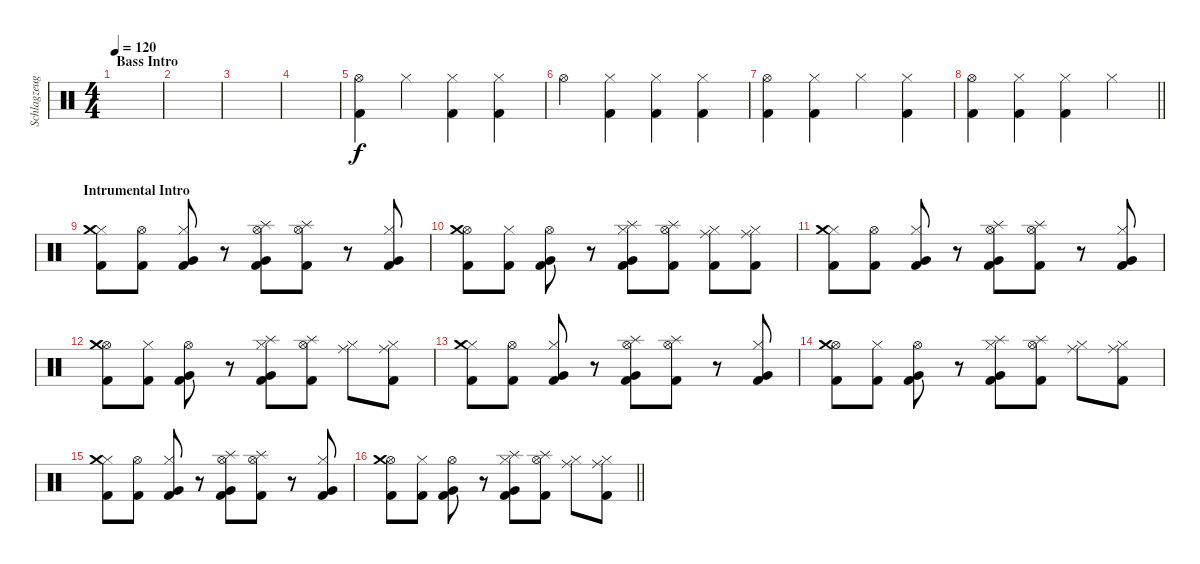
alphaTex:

\track ("Schlagzeug" "Schlagzeug") {instrument percussion}
\staff {score}
\articulation defaults
\ts (4 4)
\section ("" "Bass Intro")
\tempo 120
\clef neutral
\ks c
|
|
|
|
("Hi-Hat (open)" "Kick (hit) 2").4 "Hi-Hat (closed)".4 ("Hi-Hat (closed)" "Kick (hit) 2").4 ("Hi-Hat (closed)" "Kick (hit) 2").4 |
"Hi-Hat (open)".4 ("Hi-Hat (closed)" "Kick (hit) 2").4 ("Hi-Hat (closed)" "Kick (hit) 2").4 ("Hi-Hat (closed)" "Kick (hit) 2").4 |
("Hi-Hat (open)" "Kick (hit) 2").4 ("Hi-Hat (closed)" "Kick (hit) 2").4 "Hi-Hat (closed)".4 ("Hi-Hat (closed)" "Kick (hit) 2").4 |
\barLineRight lightlight
("Hi-Hat (open)" "Kick (hit) 2").4 ("Hi-Hat (closed)" "Kick (hit) 2").4 ("Hi-Hat (closed)" "Kick (hit) 2").4 "Hi-Hat (closed)".4 |
\section ("" "Intrumental Intro")
("Hi-Hat (closed)" "Crash medium (hit)" "Kick (hit) 2").8 ("Hi-Hat (open)" "Kick (hit) 2").8 ("Hi-Hat (closed)" "Very Low Tom (hit)" "Kick (hit) 2").8 r.8 ("Hi-Hat (open)" "Splash (hit)" "Very Low Tom (hit)" "Kick (hit) 2").8 ("Hi-Hat (open)" "Splash (hit)" "Kick (hit) 2").8 r.8 ("Hi-Hat (closed)" "Very Low Tom (hit)" "Kick (hit) 2").8 |
("Hi-Hat (open)" "Crash medium (hit)" "Kick (hit) 2").8 ("Hi-Hat (closed)" "Kick (hit) 2").8 ("Hi-Hat (open)" "Very Low Tom (hit)" "Kick (hit) 2").8 r.8 ("Hi-Hat (closed)" "Splash (hit)" "Very Low Tom (hit)" "Kick (hit) 2").8 ("Hi-Hat (open)" "Splash (hit)" "Kick (hit) 2").8 ("Hi-Hat (closed)" "Ride (middle)" "Kick (hit) 2").8 ("Hi-Hat (closed)" "Ride (middle)" "Kick (hit) 2").8 |
("Hi-Hat (closed)" "Crash medium (hit)" "Kick (hit) 2").8 ("Hi-Hat (open)" "Kick (hit) 2").8 ("Hi-Hat (closed)" "Very Low Tom (hit)" "Kick (hit) 2").8 r.8 ("Hi-Hat (open)" "Splash (hit)" "Very Low Tom (hit)" "Kick (hit) 2").8 ("Hi-Hat (open)" "Splash (hit)" "Kick (hit) 2").8 r.8 ("Hi-Hat (closed)" "Very Low Tom (hit)" "Kick (hit) 2").8 |
("Hi-Hat (open)" "Crash medium (hit)" "Kick (hit) 2").8 ("Hi-Hat (closed)" "Kick (hit) 2").8 ("Hi-Hat (open)" "Very Low Tom (hit)" "Kick (hit) 2").8 r.8 ("Hi-Hat (closed)" "Splash (hit)" "Very Low Tom (hit)" "Kick (hit) 2").8 ("Hi-Hat (open)" "Splash (hit)" "Kick (hit) 2").8 ("Hi-Hat (closed)" "Ride (middle)").8 ("Hi-Hat (closed)" "Ride (middle)" "Kick (hit) 2").8 |
("Hi-Hat (closed)" "Crash medium (hit)" "Kick (hit) 2").8 ("Hi-Hat (open)" "Kick (hit) 2").8 ("Hi-Hat (closed)" "Very Low Tom (hit)" "Kick (hit) 2").8 r.8 ("Hi-Hat (open)" "Splash (hit)" "Very Low Tom (hit)" "Kick (hit) 2").8 ("Hi-Hat (open)" "Splash (hit)" "Kick (hit) 2").8 r.8 ("Hi-Hat (closed)" "Very Low Tom (hit)" "Kick (hit) 2").8 |
("Hi-Hat (open)" "Crash medium (hit)" "Kick (hit) 2").8 ("Hi-Hat (closed)" "Kick (hit) 2").8 ("Hi-Hat (open)" "Very Low Tom (hit)" "Kick (hit) 2").8 r.8 ("Hi-Hat (closed)" "Splash (hit)" "Very Low Tom (hit)" "Kick (hit) 2").8 ("Hi-Hat (open)" "Splash (hit)" "Kick (hit) 2").8 ("Hi-Hat (closed)" "Ride (middle)").8 ("Hi-Hat (closed)" "Ride (middle)" "Kick (hit) 2").8 |
("Hi-Hat (closed)" "Crash medium (hit)" "Kick (hit) 2").8 ("Hi-Hat (open)" "Kick (hit) 2").8 ("Hi-Hat (closed)" "Very Low Tom (hit)" "Kick (hit) 2").8 r.8 ("Hi-Hat (open)" "Splash (hit)" "Very Low Tom (hit)" "Kick (hit) 2").8 ("Hi-Hat (open)" "Splash (hit)" "Kick (hit) 2").8 r.8 ("Hi-Hat (closed)" "Very Low Tom (hit)" "Kick (hit) 2").8 |
\barLineRight lightlight
("Hi-Hat (open)" "Crash medium (hit)" "Kick (hit) 2").8 ("Hi-Hat (closed)" "Kick (hit) 2").8 ("Hi-Hat (open)" "Very Low Tom (hit)" "Kick (hit) 2").8 r.8 ("Hi-Hat (closed)" "Splash (hit)" "Very Low Tom (hit)" "Kick (hit) 2").8 ("Hi-Hat (open)" "Splash (hit)" "Kick (hit) 2").8 ("Hi-Hat (closed)" "Ride (middle)").8 ("Hi-Hat (closed)" "Ride (middle)" "Kick (hit) 2").8
